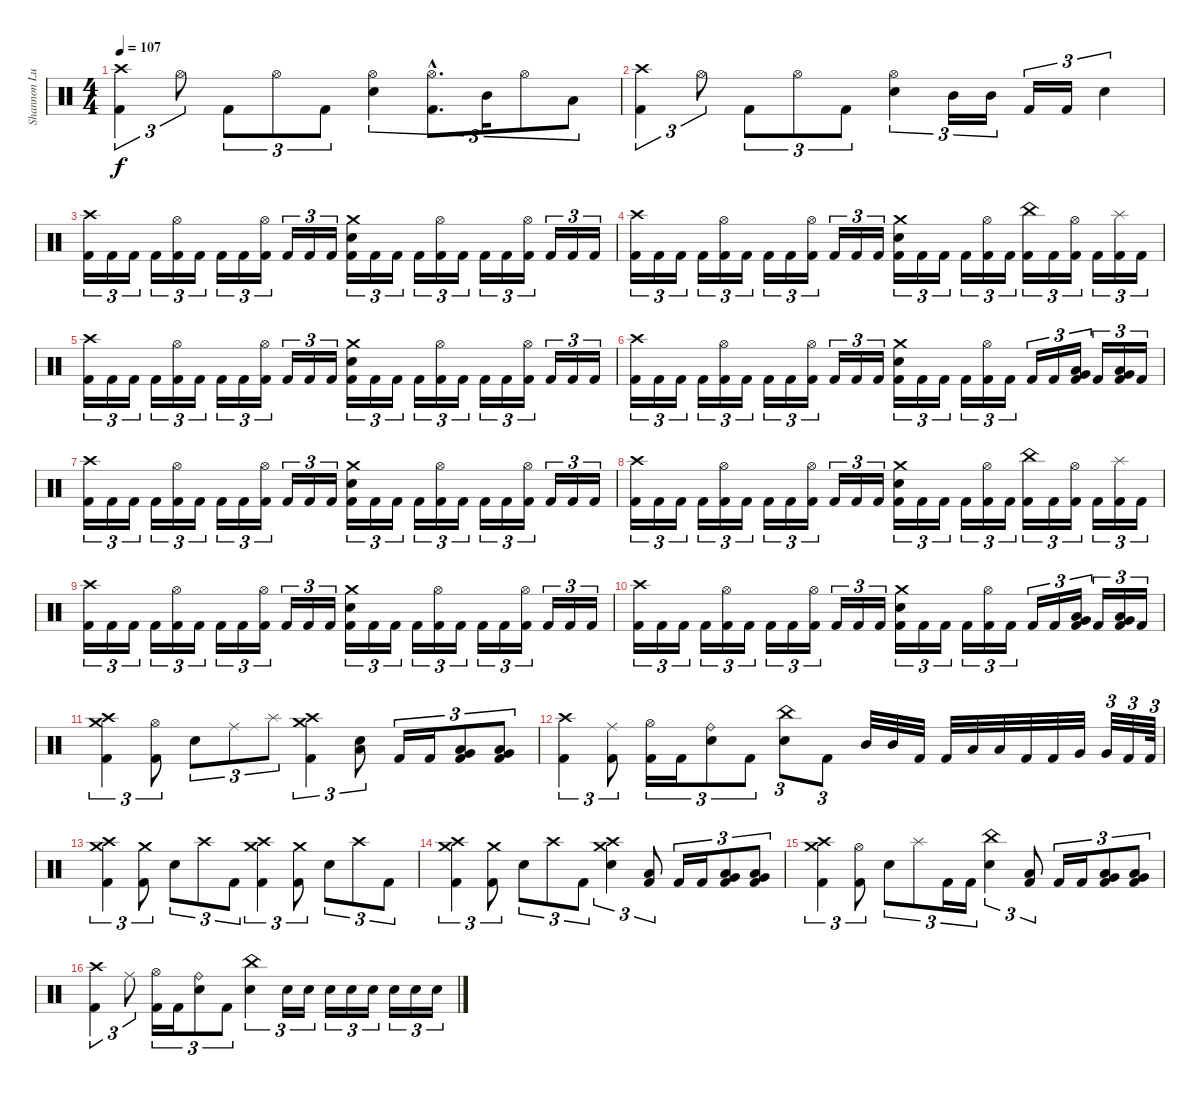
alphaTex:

\track ("Shannon Lucas (Drums)" "Shannon Lu") {instrument percussion}
\staff {score}
\articulation defaults
\ts (4 4)
\tempo 107
\clef neutral
\ks c
("Crash high (hit)" "Kick (hit) 2").4{tu (3 2) dy f} "Hi-Hat (open)".8{tu (3 2)} "Kick (hit) 2".8{tu (3 2)} "Hi-Hat (open)".8{tu (3 2)} "Kick (hit) 2".8{tu (3 2)} ("Hi-Hat (open)" "Snare (hit) 2").4{tu (3 2)} ("Hi-Hat (open)"{hac} "Kick (hit) 2"{hac}).8{d tu (3 2)} "Mid Tom (hit)".16{tu (3 2)} "Hi-Hat (open)".8{tu (3 2)} "Low Tom (hit)".8{tu (3 2)} |
("Crash high (hit)" "Kick (hit) 2").4{tu (3 2)} "Hi-Hat (open)".8{tu (3 2)} "Kick (hit) 2".8{tu (3 2)} "Hi-Hat (open)".8{tu (3 2)} "Kick (hit) 2".8{tu (3 2)} ("Hi-Hat (open)" "Snare (hit) 2").4{tu (3 2)} "Mid Tom (hit)".16{tu (3 2)} "Mid Tom (hit)".16{tu (3 2)} "Kick (hit) 2".16{tu (3 2)} "Kick (hit) 2".16{tu (3 2)} "Snare (hit) 2".4{tu (3 2)} |
("Crash high (hit)" "Kick (hit) 2").16{tu (3 2)} "Kick (hit) 2".16{tu (3 2)} "Kick (hit) 2".16{tu (3 2)} "Kick (hit) 2".16{tu (3 2)} ("Hi-Hat (open)" "Kick (hit) 2").16{tu (3 2)} "Kick (hit) 2".16{tu (3 2)} "Kick (hit) 2".16{tu (3 2)} "Kick (hit) 2".16{tu (3 2)} ("Hi-Hat (open)" "Kick (hit) 2").16{tu (3 2)} "Kick (hit) 2".16{tu (3 2)} "Kick (hit) 2".16{tu (3 2)} "Kick (hit) 2".16{tu (3 2)} ("Snare (hit) 2" "Crash medium (hit)" "Kick (hit) 2").16{tu (3 2)} "Kick (hit) 2".16{tu (3 2)} "Kick (hit) 2".16{tu (3 2)} "Kick (hit) 2".16{tu (3 2)} ("Hi-Hat (open)" "Kick (hit) 2").16{tu (3 2)} "Kick (hit) 2".16{tu (3 2)} "Kick (hit) 2".16{tu (3 2)} "Kick (hit) 2".16{tu (3 2)} ("Hi-Hat (open)" "Kick (hit) 2").16{tu (3 2)} "Kick (hit) 2".16{tu (3 2)} "Kick (hit) 2".16{tu (3 2)} "Kick (hit) 2".16{tu (3 2)} |
("Crash high (hit)" "Kick (hit) 2").16{tu (3 2)} "Kick (hit) 2".16{tu (3 2)} "Kick (hit) 2".16{tu (3 2)} "Kick (hit) 2".16{tu (3 2)} ("Hi-Hat (open)" "Kick (hit) 2").16{tu (3 2)} "Kick (hit) 2".16{tu (3 2)} "Kick (hit) 2".16{tu (3 2)} "Kick (hit) 2".16{tu (3 2)} ("Hi-Hat (open)" "Kick (hit) 2").16{tu (3 2)} "Kick (hit) 2".16{tu (3 2)} "Kick (hit) 2".16{tu (3 2)} "Kick (hit) 2".16{tu (3 2)} ("Snare (hit) 2" "Crash medium (hit)" "Kick (hit) 2").16{tu (3 2)} "Kick (hit) 2".16{tu (3 2)} "Kick (hit) 2".16{tu (3 2)} "Kick (hit) 2".16{tu (3 2)} ("Hi-Hat (open)" "Kick (hit) 2").16{tu (3 2)} "Kick (hit) 2".16{tu (3 2)} ("China (hit)" "Kick (hit) 2").16{tu (3 2)} "Kick (hit) 2".16{tu (3 2)} ("Hi-Hat (open)" "Kick (hit) 2").16{tu (3 2)} "Kick (hit) 2".16{tu (3 2)} ("Splash (hit)" "Kick (hit) 2").16{tu (3 2)} "Kick (hit) 2".16{tu (3 2)} |
("Crash high (hit)" "Kick (hit) 2").16{tu (3 2)} "Kick (hit) 2".16{tu (3 2)} "Kick (hit) 2".16{tu (3 2)} "Kick (hit) 2".16{tu (3 2)} ("Hi-Hat (open)" "Kick (hit) 2").16{tu (3 2)} "Kick (hit) 2".16{tu (3 2)} "Kick (hit) 2".16{tu (3 2)} "Kick (hit) 2".16{tu (3 2)} ("Hi-Hat (open)" "Kick (hit) 2").16{tu (3 2)} "Kick (hit) 2".16{tu (3 2)} "Kick (hit) 2".16{tu (3 2)} "Kick (hit) 2".16{tu (3 2)} ("Snare (hit) 2" "Crash medium (hit)" "Kick (hit) 2").16{tu (3 2)} "Kick (hit) 2".16{tu (3 2)} "Kick (hit) 2".16{tu (3 2)} "Kick (hit) 2".16{tu (3 2)} ("Hi-Hat (open)" "Kick (hit) 2").16{tu (3 2)} "Kick (hit) 2".16{tu (3 2)} "Kick (hit) 2".16{tu (3 2)} "Kick (hit) 2".16{tu (3 2)} ("Hi-Hat (open)" "Kick (hit) 2").16{tu (3 2)} "Kick (hit) 2".16{tu (3 2)} "Kick (hit) 2".16{tu (3 2)} "Kick (hit) 2".16{tu (3 2)} |
("Crash high (hit)" "Kick (hit) 2").16{tu (3 2)} "Kick (hit) 2".16{tu (3 2)} "Kick (hit) 2".16{tu (3 2)} "Kick (hit) 2".16{tu (3 2)} ("Hi-Hat (open)" "Kick (hit) 2").16{tu (3 2)} "Kick (hit) 2".16{tu (3 2)} "Kick (hit) 2".16{tu (3 2)} "Kick (hit) 2".16{tu (3 2)} ("Hi-Hat (open)" "Kick (hit) 2").16{tu (3 2)} "Kick (hit) 2".16{tu (3 2)} "Kick (hit) 2".16{tu (3 2)} "Kick (hit) 2".16{tu (3 2)} ("Snare (hit) 2" "Crash medium (hit)" "Kick (hit) 2").16{tu (3 2)} "Kick (hit) 2".16{tu (3 2)} "Kick (hit) 2".16{tu (3 2)} "Kick (hit) 2".16{tu (3 2)} ("Hi-Hat (open)" "Kick (hit) 2").16{tu (3 2)} "Kick (hit) 2".16{tu (3 2)} "Kick (hit) 2".16{tu (3 2)} "Kick (hit) 2".16{tu (3 2)} ("Very Low Tom (hit)" "Low Tom (hit)" "Kick (hit) 2").16{tu (3 2)} "Kick (hit) 2".16{tu (3 2)} ("Low Floor Tom (hit)" "Very Low Tom (hit)" "Kick (hit) 2").16{tu (3 2)} "Kick (hit) 2".16{tu (3 2)} |
("Crash high (hit)" "Kick (hit) 2").16{tu (3 2)} "Kick (hit) 2".16{tu (3 2)} "Kick (hit) 2".16{tu (3 2)} "Kick (hit) 2".16{tu (3 2)} ("Hi-Hat (open)" "Kick (hit) 2").16{tu (3 2)} "Kick (hit) 2".16{tu (3 2)} "Kick (hit) 2".16{tu (3 2)} "Kick (hit) 2".16{tu (3 2)} ("Hi-Hat (open)" "Kick (hit) 2").16{tu (3 2)} "Kick (hit) 2".16{tu (3 2)} "Kick (hit) 2".16{tu (3 2)} "Kick (hit) 2".16{tu (3 2)} ("Snare (hit) 2" "Crash medium (hit)" "Kick (hit) 2").16{tu (3 2)} "Kick (hit) 2".16{tu (3 2)} "Kick (hit) 2".16{tu (3 2)} "Kick (hit) 2".16{tu (3 2)} ("Hi-Hat (open)" "Kick (hit) 2").16{tu (3 2)} "Kick (hit) 2".16{tu (3 2)} "Kick (hit) 2".16{tu (3 2)} "Kick (hit) 2".16{tu (3 2)} ("Hi-Hat (open)" "Kick (hit) 2").16{tu (3 2)} "Kick (hit) 2".16{tu (3 2)} "Kick (hit) 2".16{tu (3 2)} "Kick (hit) 2".16{tu (3 2)} |
("Crash high (hit)" "Kick (hit) 2").16{tu (3 2)} "Kick (hit) 2".16{tu (3 2)} "Kick (hit) 2".16{tu (3 2)} "Kick (hit) 2".16{tu (3 2)} ("Hi-Hat (open)" "Kick (hit) 2").16{tu (3 2)} "Kick (hit) 2".16{tu (3 2)} "Kick (hit) 2".16{tu (3 2)} "Kick (hit) 2".16{tu (3 2)} ("Hi-Hat (open)" "Kick (hit) 2").16{tu (3 2)} "Kick (hit) 2".16{tu (3 2)} "Kick (hit) 2".16{tu (3 2)} "Kick (hit) 2".16{tu (3 2)} ("Snare (hit) 2" "Crash medium (hit)" "Kick (hit) 2").16{tu (3 2)} "Kick (hit) 2".16{tu (3 2)} "Kick (hit) 2".16{tu (3 2)} "Kick (hit) 2".16{tu (3 2)} ("Hi-Hat (open)" "Kick (hit) 2").16{tu (3 2)} "Kick (hit) 2".16{tu (3 2)} ("China (hit)" "Kick (hit) 2").16{tu (3 2)} "Kick (hit) 2".16{tu (3 2)} ("Hi-Hat (open)" "Kick (hit) 2").16{tu (3 2)} "Kick (hit) 2".16{tu (3 2)} ("Splash (hit)" "Kick (hit) 2").16{tu (3 2)} "Kick (hit) 2".16{tu (3 2)} |
("Crash high (hit)" "Kick (hit) 2").16{tu (3 2)} "Kick (hit) 2".16{tu (3 2)} "Kick (hit) 2".16{tu (3 2)} "Kick (hit) 2".16{tu (3 2)} ("Hi-Hat (open)" "Kick (hit) 2").16{tu (3 2)} "Kick (hit) 2".16{tu (3 2)} "Kick (hit) 2".16{tu (3 2)} "Kick (hit) 2".16{tu (3 2)} ("Hi-Hat (open)" "Kick (hit) 2").16{tu (3 2)} "Kick (hit) 2".16{tu (3 2)} "Kick (hit) 2".16{tu (3 2)} "Kick (hit) 2".16{tu (3 2)} ("Snare (hit) 2" "Crash medium (hit)" "Kick (hit) 2").16{tu (3 2)} "Kick (hit) 2".16{tu (3 2)} "Kick (hit) 2".16{tu (3 2)} "Kick (hit) 2".16{tu (3 2)} ("Hi-Hat (open)" "Kick (hit) 2").16{tu (3 2)} "Kick (hit) 2".16{tu (3 2)} "Kick (hit) 2".16{tu (3 2)} "Kick (hit) 2".16{tu (3 2)} ("Hi-Hat (open)" "Kick (hit) 2").16{tu (3 2)} "Kick (hit) 2".16{tu (3 2)} "Kick (hit) 2".16{tu (3 2)} "Kick (hit) 2".16{tu (3 2)} |
("Crash high (hit)" "Kick (hit) 2").16{tu (3 2)} "Kick (hit) 2".16{tu (3 2)} "Kick (hit) 2".16{tu (3 2)} "Kick (hit) 2".16{tu (3 2)} ("Hi-Hat (open)" "Kick (hit) 2").16{tu (3 2)} "Kick (hit) 2".16{tu (3 2)} "Kick (hit) 2".16{tu (3 2)} "Kick (hit) 2".16{tu (3 2)} ("Hi-Hat (open)" "Kick (hit) 2").16{tu (3 2)} "Kick (hit) 2".16{tu (3 2)} "Kick (hit) 2".16{tu (3 2)} "Kick (hit) 2".16{tu (3 2)} ("Snare (hit) 2" "Crash medium (hit)" "Kick (hit) 2").16{tu (3 2)} "Kick (hit) 2".16{tu (3 2)} "Kick (hit) 2".16{tu (3 2)} "Kick (hit) 2".16{tu (3 2)} ("Hi-Hat (open)" "Kick (hit) 2").16{tu (3 2)} "Kick (hit) 2".16{tu (3 2)} "Kick (hit) 2".16{tu (3 2)} "Kick (hit) 2".16{tu (3 2)} ("Very Low Tom (hit)" "Low Tom (hit)" "Kick (hit) 2").16{tu (3 2)} "Kick (hit) 2".16{tu (3 2)} ("Low Floor Tom (hit)" "Very Low Tom (hit)" "Kick (hit) 2").16{tu (3 2)} "Kick (hit) 2".16{tu (3 2)} |
("Crash high (hit)" "Crash medium (hit)" "Kick (hit) 2").4{tu (3 2)} ("Hi-Hat (open)" "Kick (hit) 2").8{tu (3 2)} "Snare (hit) 2".8{tu (3 2)} "Ride (middle)".8{tu (3 2)} "Splash (hit)".8{tu (3 2)} ("Crash high (hit)" "Crash medium (hit)" "Kick (hit) 2").4{tu (3 2)} ("Low Floor Tom (hit)" "Snare (hit) 2").8{tu (3 2)} "Kick (hit) 2".16{tu (3 2)} "Kick (hit) 2".16{tu (3 2)} ("Low Tom (hit)" "Very Low Tom (hit)" "Kick (hit) 2").8{tu (3 2)} ("Very Low Tom (hit)" "Low Floor Tom (hit)" "Kick (hit) 2").8{tu (3 2)} |
("Crash high (hit)" "Kick (hit) 2").4{tu (3 2)} ("Ride (middle)" "Kick (hit) 2").8{tu (3 2)} ("Hi-Hat (open)" "Kick (hit) 2").16{tu (3 2)} "Kick (hit) 2".16{tu (3 2)} ("Ride (bell)" "Snare (hit) 2").8{tu (3 2)} "Kick (hit) 2".8{tu (3 2)} ("China (hit)" "Snare (hit) 2").8{tu (3 2)} "Kick (hit) 2".8{tu (3 2)} "Mid Tom (hit)".32 "Mid Tom (hit)".32 "Kick (hit) 2".32 "Kick (hit) 2".32 "Low Tom (hit)".32 "Low Tom (hit)".32 "Kick (hit) 2".32 "Kick (hit) 2".32 "Very Low Tom (hit)".32 "Very Low Tom (hit)".32{tu (3 2)} "Kick (hit) 2".32{tu (3 2)} "Kick (hit) 2".64{tu (3 2)} |
("Crash medium (hit)" "Crash high (hit)" "Kick (hit) 2").4{tu (3 2)} ("Crash medium (hit)" "Kick (hit) 2").8{tu (3 2)} "Snare (hit) 2".8{tu (3 2)} "Crash high (hit)".8{tu (3 2)} "Kick (hit) 2".8{tu (3 2)} ("Crash high (hit)" "Crash medium (hit)" "Kick (hit) 2").4{tu (3 2)} ("Crash medium (hit)" "Kick (hit) 2").8{tu (3 2)} "Snare (hit) 2".8{tu (3 2)} "Crash high (hit)".8{tu (3 2)} "Kick (hit) 2".8{tu (3 2)} |
("Crash medium (hit)" "Crash high (hit)" "Kick (hit) 2").4{tu (3 2)} ("Crash medium (hit)" "Kick (hit) 2").8{tu (3 2)} "Snare (hit) 2".8{tu (3 2)} "Crash high (hit)".8{tu (3 2)} "Kick (hit) 2".8{tu (3 2)} ("Crash high (hit)" "Crash medium (hit)" "Snare (hit) 2").4{tu (3 2)} ("Low Tom (hit)" "Kick (hit) 2").8{tu (3 2)} "Kick (hit) 2".16{tu (3 2)} "Kick (hit) 2".16{tu (3 2)} ("Very Low Tom (hit)" "Low Tom (hit)" "Kick (hit) 2").8{tu (3 2)} ("Low Floor Tom (hit)" "Very Low Tom (hit)" "Kick (hit) 2").8{tu (3 2)} |
("Crash medium (hit)" "Crash high (hit)" "Kick (hit) 2").4{tu (3 2)} ("Hi-Hat (open)" "Kick (hit) 2").8{tu (3 2)} "Snare (hit) 2".8{tu (3 2)} "Splash (hit)".8{tu (3 2)} "Kick (hit) 2".16{tu (3 2)} "Kick (hit) 2".16{tu (3 2)} ("China (hit)" "Snare (hit) 2").4{tu (3 2)} ("Low Tom (hit)" "Kick (hit) 2").8{tu (3 2)} "Kick (hit) 2".16{tu (3 2)} "Kick (hit) 2".16{tu (3 2)} ("Very Low Tom (hit)" "Low Tom (hit)" "Kick (hit) 2").8{tu (3 2)} ("Low Floor Tom (hit)" "Very Low Tom (hit)" "Kick (hit) 2").8{tu (3 2)} |
("Crash high (hit)" "Kick (hit) 2").4{tu (3 2)} "Ride (middle)".8{tu (3 2)} ("Hi-Hat (open)" "Kick (hit) 2").16{tu (3 2)} "Kick (hit) 2".16{tu (3 2)} ("Ride (bell)" "Snare (hit) 2").8{tu (3 2)} "Kick (hit) 2".8{tu (3 2)} ("China (hit)" "Snare (hit) 2").4{tu (3 2)} "Snare (hit) 2".16{tu (3 2)} "Snare (hit) 2".16{tu (3 2)} "Snare (hit) 2".16{tu (3 2)} "Snare (hit) 2".16{tu (3 2)} "Snare (hit) 2".16{tu (3 2)} "Snare (hit) 2".16{tu (3 2)} "Snare (hit) 2".16{tu (3 2)} "Snare (hit) 2".16{tu (3 2)}
